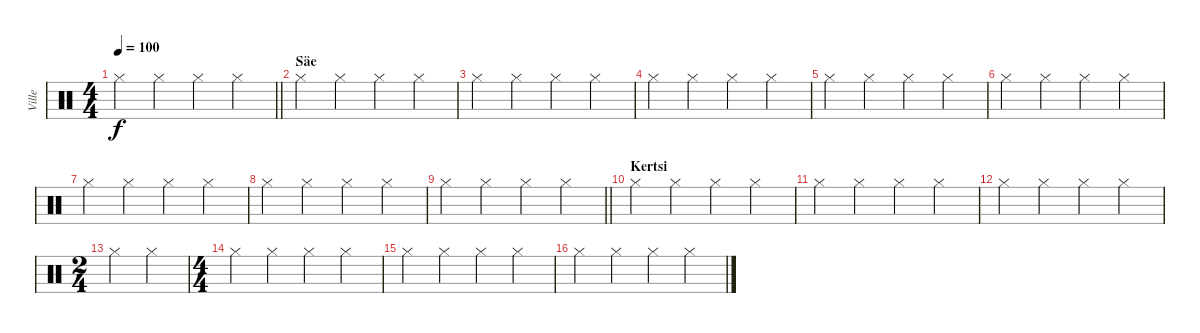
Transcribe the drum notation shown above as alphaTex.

\track ("Ville" "Ville") {instrument percussion}
\staff {score}
\articulation defaults
\ts (4 4)
\tempo 100
\clef neutral
\barLineRight lightlight
\ks c "Hi-Hat (closed)".4{dy f} "Hi-Hat (closed)".4 "Hi-Hat (closed)".4 "Hi-Hat (closed)".4
|
\section ("" "Säe")
"Hi-Hat (closed)".4 "Hi-Hat (closed)".4 "Hi-Hat (closed)".4 "Hi-Hat (closed)".4 |
"Hi-Hat (closed)".4 "Hi-Hat (closed)".4 "Hi-Hat (closed)".4 "Hi-Hat (closed)".4 |
"Hi-Hat (closed)".4 "Hi-Hat (closed)".4 "Hi-Hat (closed)".4 "Hi-Hat (closed)".4 |
"Hi-Hat (closed)".4 "Hi-Hat (closed)".4 "Hi-Hat (closed)".4 "Hi-Hat (closed)".4 |
"Hi-Hat (closed)".4 "Hi-Hat (closed)".4 "Hi-Hat (closed)".4 "Hi-Hat (closed)".4 |
"Hi-Hat (closed)".4 "Hi-Hat (closed)".4 "Hi-Hat (closed)".4 "Hi-Hat (closed)".4 |
"Hi-Hat (closed)".4 "Hi-Hat (closed)".4 "Hi-Hat (closed)".4 "Hi-Hat (closed)".4 |
\barLineRight lightlight "Hi-Hat (closed)".4 "Hi-Hat (closed)".4 "Hi-Hat (closed)".4 "Hi-Hat (closed)".4
|
\section ("" "Kertsi")
"Hi-Hat (closed)".4 "Hi-Hat (closed)".4 "Hi-Hat (closed)".4 "Hi-Hat (closed)".4 |
"Hi-Hat (closed)".4 "Hi-Hat (closed)".4 "Hi-Hat (closed)".4 "Hi-Hat (closed)".4 |
"Hi-Hat (closed)".4 "Hi-Hat (closed)".4 "Hi-Hat (closed)".4 "Hi-Hat (closed)".4 |
\ts (2 4)
"Hi-Hat (closed)".4 "Hi-Hat (closed)".4 |
\ts (4 4)
"Hi-Hat (closed)".4 "Hi-Hat (closed)".4 "Hi-Hat (closed)".4 "Hi-Hat (closed)".4 |
"Hi-Hat (closed)".4 "Hi-Hat (closed)".4 "Hi-Hat (closed)".4 "Hi-Hat (closed)".4 |
"Hi-Hat (closed)".4 "Hi-Hat (closed)".4 "Hi-Hat (closed)".4 "Hi-Hat (closed)".4
